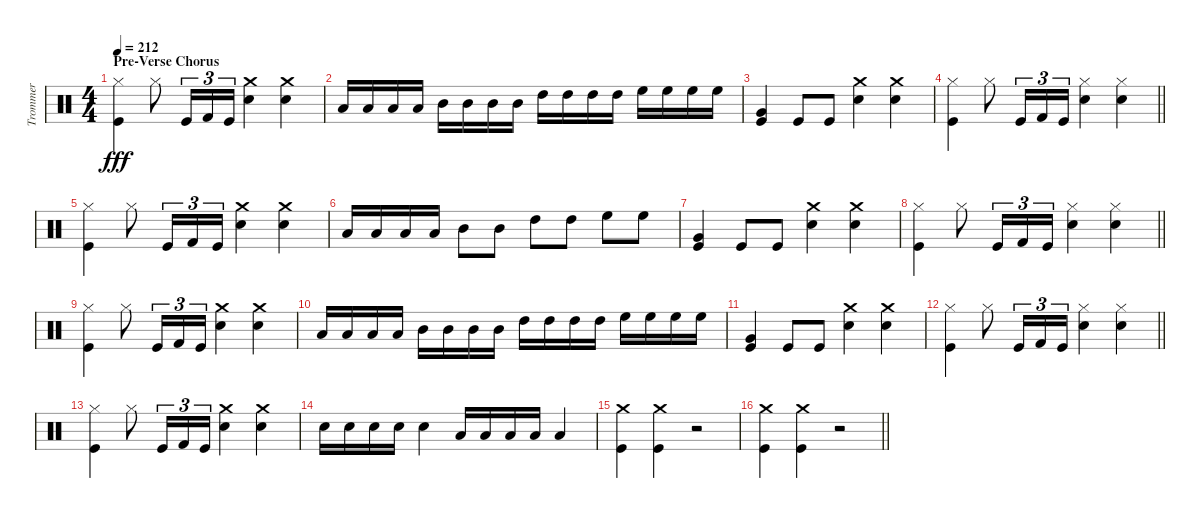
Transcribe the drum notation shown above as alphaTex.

\track ("Trommer" "Trommer") {instrument percussion}
\staff {score}
\articulation defaults
\ts (4 4)
\section ("" "Pre-Verse Chorus")
\tempo 212
\clef neutral
\ks c
("Hi-Hat (closed)" "Kick (hit)").4{dy fff} "Hi-Hat (closed)".8 "Kick (hit)".16{tu (3 2)} "Kick (hit) 2".16{tu (3 2)} "Kick (hit)".16{tu (3 2)} ("Crash medium (hit)" "Snare (hit) 2").4 ("Crash medium (hit)" "Snare (hit) 2").4 |
"Low Tom (hit)".16 "Low Tom (hit)".16 "Low Tom (hit)".16 "Low Tom (hit)".16 "Mid Tom (hit)".16 "Mid Tom (hit)".16 "Mid Tom (hit)".16 "Mid Tom (hit)".16 "High Tom (hit)".16 "High Tom (hit)".16 "High Tom (hit)".16 "High Tom (hit)".16 "High Floor Tom (hit)".16 "High Floor Tom (hit)".16 "High Floor Tom (hit)".16 "High Floor Tom (hit)".16 |
("Kick (hit)" "Very Low Tom (hit)").4 "Kick (hit)".8 "Kick (hit)".8 ("Crash medium (hit)" "Snare (hit) 2").4 ("Crash medium (hit)" "Snare (hit) 2").4 |
\barLineRight lightlight
("Kick (hit)" "Hi-Hat (closed)").4 "Hi-Hat (closed)".8 "Kick (hit)".16{tu (3 2)} "Kick (hit) 2".16{tu (3 2)} "Kick (hit)".16{tu (3 2)} ("Hi-Hat (closed)" "Snare (hit) 2").4 ("Snare (hit) 2" "Hi-Hat (closed)").4 |
("Hi-Hat (closed)" "Kick (hit)").4 "Hi-Hat (closed)".8 "Kick (hit)".16{tu (3 2)} "Kick (hit) 2".16{tu (3 2)} "Kick (hit)".16{tu (3 2)} ("Crash medium (hit)" "Snare (hit) 2").4 ("Crash medium (hit)" "Snare (hit) 2").4 |
"Low Tom (hit)".16 "Low Tom (hit)".16 "Low Tom (hit)".16 "Low Tom (hit)".16 "Mid Tom (hit)".8 "Mid Tom (hit)".8 "High Tom (hit)".8 "High Tom (hit)".8 "High Floor Tom (hit)".8 "High Floor Tom (hit)".8 |
("Kick (hit)" "Very Low Tom (hit)").4 "Kick (hit)".8 "Kick (hit)".8 ("Crash medium (hit)" "Snare (hit) 2").4 ("Crash medium (hit)" "Snare (hit) 2").4 |
\barLineRight lightlight
("Kick (hit)" "Hi-Hat (closed)").4 "Hi-Hat (closed)".8 "Kick (hit)".16{tu (3 2)} "Kick (hit) 2".16{tu (3 2)} "Kick (hit)".16{tu (3 2)} ("Hi-Hat (closed)" "Snare (hit) 2").4 ("Snare (hit) 2" "Hi-Hat (closed)").4 |
("Hi-Hat (closed)" "Kick (hit)").4 "Hi-Hat (closed)".8 "Kick (hit)".16{tu (3 2)} "Kick (hit) 2".16{tu (3 2)} "Kick (hit)".16{tu (3 2)} ("Crash medium (hit)" "Snare (hit) 2").4 ("Crash medium (hit)" "Snare (hit) 2").4 |
"Low Tom (hit)".16 "Low Tom (hit)".16 "Low Tom (hit)".16 "Low Tom (hit)".16 "Mid Tom (hit)".16 "Mid Tom (hit)".16 "Mid Tom (hit)".16 "Mid Tom (hit)".16 "High Tom (hit)".16 "High Tom (hit)".16 "High Tom (hit)".16 "High Tom (hit)".16 "High Floor Tom (hit)".16 "High Floor Tom (hit)".16 "High Floor Tom (hit)".16 "High Floor Tom (hit)".16 |
("Kick (hit)" "Very Low Tom (hit)").4 "Kick (hit)".8 "Kick (hit)".8 ("Crash medium (hit)" "Snare (hit) 2").4 ("Crash medium (hit)" "Snare (hit) 2").4 |
\barLineRight lightlight
("Kick (hit)" "Hi-Hat (closed)").4 "Hi-Hat (closed)".8 "Kick (hit)".16{tu (3 2)} "Kick (hit) 2".16{tu (3 2)} "Kick (hit)".16{tu (3 2)} ("Snare (hit) 2" "Hi-Hat (closed)").4 ("Snare (hit) 2" "Hi-Hat (closed)").4 |
("Hi-Hat (closed)" "Kick (hit)").4 "Hi-Hat (closed)".8 "Kick (hit)".16{tu (3 2)} "Kick (hit) 2".16{tu (3 2)} "Kick (hit)".16{tu (3 2)} ("Snare (hit) 2" "Crash medium (hit)").4 ("Snare (hit) 2" "Crash medium (hit)").4 |
"Snare (hit) 2".16 "Snare (hit) 2".16 "Snare (hit) 2".16 "Snare (hit) 2".16 "Snare (hit) 2".4 "Low Tom (hit)".16 "Low Tom (hit)".16 "Low Tom (hit)".16 "Low Tom (hit)".16 "Low Tom (hit)".4 |
("Crash medium (hit)" "Kick (hit)").4 ("Kick (hit)" "Crash medium (hit)").4 r.2 |
\barLineRight lightlight
("Kick (hit)" "Crash medium (hit)").4 ("Kick (hit)" "Crash medium (hit)").4 r.2
